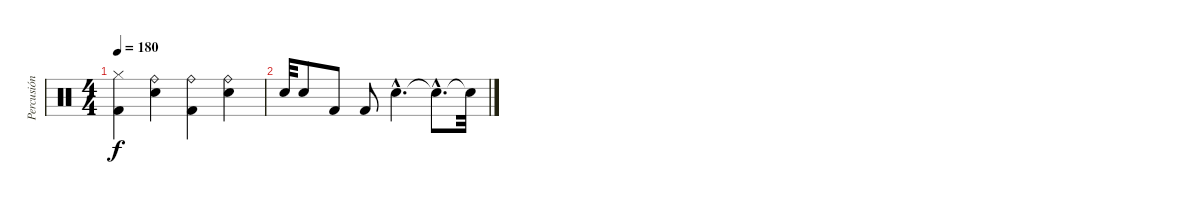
\track ("Percusión" "Percusión") {instrument percussion}
\staff {score}
\articulation defaults
\ts (4 4)
\tempo 180
\clef neutral
\ks c
("Hi-Hat (closed)" "Kick (hit) 2").4{dy f} ("Ride (bell)" "Electric Snare (hit)").4 ("Ride (bell)" "Kick (hit) 2").4 ("Ride (bell)" "Electric Snare (hit)").4 |
"Electric Snare (hit)".32 "Electric Snare (hit)".8 "Kick (hit) 2".8 "Kick (hit) 2".8 "Electric Snare (hit)"{hac}.4{d} "Snare (hit)"{hac t}.8{d} "Snare (hit)"{t}.32
